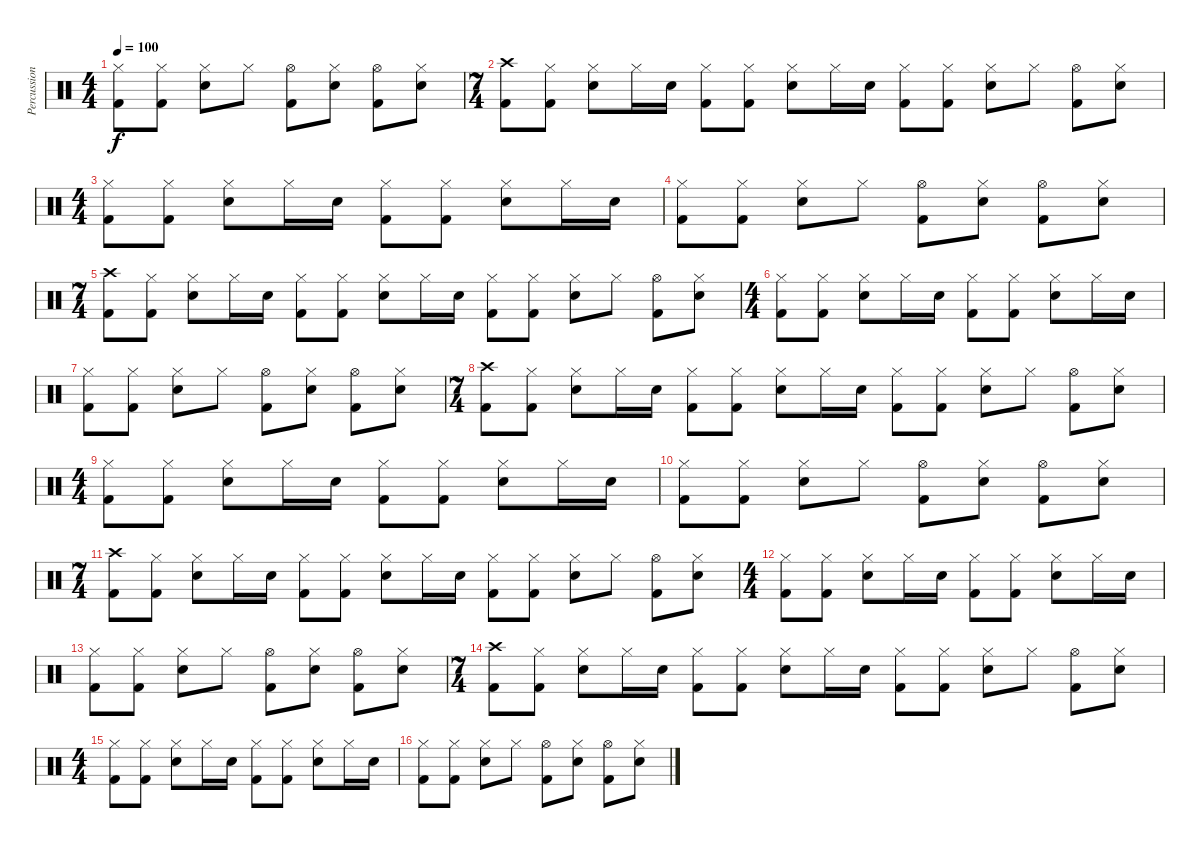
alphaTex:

\track ("Percussion" "Percussion") {instrument percussion}
\staff {score}
\articulation defaults
\ts (4 4)
\tempo 100
\clef neutral
\ks c
("Hi-Hat (closed)" "Kick (hit) 2").8{dy f} ("Hi-Hat (closed)" "Kick (hit) 2").8 ("Hi-Hat (closed)" "Electric Snare (hit)").8 "Hi-Hat (closed)".8 ("Hi-Hat (open)" "Kick (hit) 2").8 ("Hi-Hat (closed)" "Electric Snare (hit)").8 ("Hi-Hat (open)" "Kick (hit) 2").8 ("Hi-Hat (closed)" "Electric Snare (hit)").8 |
\ts (7 4)
("Crash high (hit)" "Kick (hit) 2").8 ("Hi-Hat (closed)" "Kick (hit) 2").8 ("Hi-Hat (closed)" "Electric Snare (hit)").8 "Hi-Hat (closed)".16 "Electric Snare (hit)".16 ("Hi-Hat (closed)" "Kick (hit) 2").8 ("Hi-Hat (closed)" "Kick (hit) 2").8 ("Hi-Hat (closed)" "Electric Snare (hit)").8 "Hi-Hat (closed)".16 "Electric Snare (hit)".16 ("Hi-Hat (closed)" "Kick (hit) 2").8 ("Hi-Hat (closed)" "Kick (hit) 2").8 ("Hi-Hat (closed)" "Electric Snare (hit)").8 "Hi-Hat (closed)".8 ("Hi-Hat (open)" "Kick (hit) 2").8 ("Hi-Hat (closed)" "Electric Snare (hit)").8 |
\ts (4 4)
("Hi-Hat (closed)" "Kick (hit) 2").8 ("Hi-Hat (closed)" "Kick (hit) 2").8 ("Hi-Hat (closed)" "Electric Snare (hit)").8 "Hi-Hat (closed)".16 "Electric Snare (hit)".16 ("Hi-Hat (closed)" "Kick (hit) 2").8 ("Hi-Hat (closed)" "Kick (hit) 2").8 ("Hi-Hat (closed)" "Electric Snare (hit)").8 "Hi-Hat (closed)".16 "Electric Snare (hit)".16 |
("Hi-Hat (closed)" "Kick (hit) 2").8 ("Hi-Hat (closed)" "Kick (hit) 2").8 ("Hi-Hat (closed)" "Electric Snare (hit)").8 "Hi-Hat (closed)".8 ("Hi-Hat (open)" "Kick (hit) 2").8 ("Hi-Hat (closed)" "Electric Snare (hit)").8 ("Hi-Hat (open)" "Kick (hit) 2").8 ("Hi-Hat (closed)" "Electric Snare (hit)").8 |
\ts (7 4)
("Crash high (hit)" "Kick (hit) 2").8 ("Hi-Hat (closed)" "Kick (hit) 2").8 ("Hi-Hat (closed)" "Electric Snare (hit)").8 "Hi-Hat (closed)".16 "Electric Snare (hit)".16 ("Hi-Hat (closed)" "Kick (hit) 2").8 ("Hi-Hat (closed)" "Kick (hit) 2").8 ("Hi-Hat (closed)" "Electric Snare (hit)").8 "Hi-Hat (closed)".16 "Electric Snare (hit)".16 ("Hi-Hat (closed)" "Kick (hit) 2").8 ("Hi-Hat (closed)" "Kick (hit) 2").8 ("Hi-Hat (closed)" "Electric Snare (hit)").8 "Hi-Hat (closed)".8 ("Hi-Hat (open)" "Kick (hit) 2").8 ("Hi-Hat (closed)" "Electric Snare (hit)").8 |
\ts (4 4)
("Hi-Hat (closed)" "Kick (hit) 2").8 ("Hi-Hat (closed)" "Kick (hit) 2").8 ("Hi-Hat (closed)" "Electric Snare (hit)").8 "Hi-Hat (closed)".16 "Electric Snare (hit)".16 ("Hi-Hat (closed)" "Kick (hit) 2").8 ("Hi-Hat (closed)" "Kick (hit) 2").8 ("Hi-Hat (closed)" "Electric Snare (hit)").8 "Hi-Hat (closed)".16 "Electric Snare (hit)".16 |
("Hi-Hat (closed)" "Kick (hit) 2").8 ("Hi-Hat (closed)" "Kick (hit) 2").8 ("Hi-Hat (closed)" "Electric Snare (hit)").8 "Hi-Hat (closed)".8 ("Hi-Hat (open)" "Kick (hit) 2").8 ("Hi-Hat (closed)" "Electric Snare (hit)").8 ("Hi-Hat (open)" "Kick (hit) 2").8 ("Hi-Hat (closed)" "Electric Snare (hit)").8 |
\ts (7 4)
("Crash high (hit)" "Kick (hit) 2").8 ("Hi-Hat (closed)" "Kick (hit) 2").8 ("Hi-Hat (closed)" "Electric Snare (hit)").8 "Hi-Hat (closed)".16 "Electric Snare (hit)".16 ("Hi-Hat (closed)" "Kick (hit) 2").8 ("Hi-Hat (closed)" "Kick (hit) 2").8 ("Hi-Hat (closed)" "Electric Snare (hit)").8 "Hi-Hat (closed)".16 "Electric Snare (hit)".16 ("Hi-Hat (closed)" "Kick (hit) 2").8 ("Hi-Hat (closed)" "Kick (hit) 2").8 ("Hi-Hat (closed)" "Electric Snare (hit)").8 "Hi-Hat (closed)".8 ("Hi-Hat (open)" "Kick (hit) 2").8 ("Hi-Hat (closed)" "Electric Snare (hit)").8 |
\ts (4 4)
("Hi-Hat (closed)" "Kick (hit) 2").8 ("Hi-Hat (closed)" "Kick (hit) 2").8 ("Hi-Hat (closed)" "Electric Snare (hit)").8 "Hi-Hat (closed)".16 "Electric Snare (hit)".16 ("Hi-Hat (closed)" "Kick (hit) 2").8 ("Hi-Hat (closed)" "Kick (hit) 2").8 ("Hi-Hat (closed)" "Electric Snare (hit)").8 "Hi-Hat (closed)".16 "Electric Snare (hit)".16 |
("Hi-Hat (closed)" "Kick (hit) 2").8 ("Hi-Hat (closed)" "Kick (hit) 2").8 ("Hi-Hat (closed)" "Electric Snare (hit)").8 "Hi-Hat (closed)".8 ("Hi-Hat (open)" "Kick (hit) 2").8 ("Hi-Hat (closed)" "Electric Snare (hit)").8 ("Hi-Hat (open)" "Kick (hit) 2").8 ("Hi-Hat (closed)" "Electric Snare (hit)").8 |
\ts (7 4)
("Crash high (hit)" "Kick (hit) 2").8 ("Hi-Hat (closed)" "Kick (hit) 2").8 ("Hi-Hat (closed)" "Electric Snare (hit)").8 "Hi-Hat (closed)".16 "Electric Snare (hit)".16 ("Hi-Hat (closed)" "Kick (hit) 2").8 ("Hi-Hat (closed)" "Kick (hit) 2").8 ("Hi-Hat (closed)" "Electric Snare (hit)").8 "Hi-Hat (closed)".16 "Electric Snare (hit)".16 ("Hi-Hat (closed)" "Kick (hit) 2").8 ("Hi-Hat (closed)" "Kick (hit) 2").8 ("Hi-Hat (closed)" "Electric Snare (hit)").8 "Hi-Hat (closed)".8 ("Hi-Hat (open)" "Kick (hit) 2").8 ("Hi-Hat (closed)" "Electric Snare (hit)").8 |
\ts (4 4)
("Hi-Hat (closed)" "Kick (hit) 2").8 ("Hi-Hat (closed)" "Kick (hit) 2").8 ("Hi-Hat (closed)" "Electric Snare (hit)").8 "Hi-Hat (closed)".16 "Electric Snare (hit)".16 ("Hi-Hat (closed)" "Kick (hit) 2").8 ("Hi-Hat (closed)" "Kick (hit) 2").8 ("Hi-Hat (closed)" "Electric Snare (hit)").8 "Hi-Hat (closed)".16 "Electric Snare (hit)".16 |
("Hi-Hat (closed)" "Kick (hit) 2").8 ("Hi-Hat (closed)" "Kick (hit) 2").8 ("Hi-Hat (closed)" "Electric Snare (hit)").8 "Hi-Hat (closed)".8 ("Hi-Hat (open)" "Kick (hit) 2").8 ("Hi-Hat (closed)" "Electric Snare (hit)").8 ("Hi-Hat (open)" "Kick (hit) 2").8 ("Hi-Hat (closed)" "Electric Snare (hit)").8 |
\ts (7 4)
("Crash high (hit)" "Kick (hit) 2").8 ("Hi-Hat (closed)" "Kick (hit) 2").8 ("Hi-Hat (closed)" "Electric Snare (hit)").8 "Hi-Hat (closed)".16 "Electric Snare (hit)".16 ("Hi-Hat (closed)" "Kick (hit) 2").8 ("Hi-Hat (closed)" "Kick (hit) 2").8 ("Hi-Hat (closed)" "Electric Snare (hit)").8 "Hi-Hat (closed)".16 "Electric Snare (hit)".16 ("Hi-Hat (closed)" "Kick (hit) 2").8 ("Hi-Hat (closed)" "Kick (hit) 2").8 ("Hi-Hat (closed)" "Electric Snare (hit)").8 "Hi-Hat (closed)".8 ("Hi-Hat (open)" "Kick (hit) 2").8 ("Hi-Hat (closed)" "Electric Snare (hit)").8 |
\ts (4 4)
("Hi-Hat (closed)" "Kick (hit) 2").8 ("Hi-Hat (closed)" "Kick (hit) 2").8 ("Hi-Hat (closed)" "Electric Snare (hit)").8 "Hi-Hat (closed)".16 "Electric Snare (hit)".16 ("Hi-Hat (closed)" "Kick (hit) 2").8 ("Hi-Hat (closed)" "Kick (hit) 2").8 ("Hi-Hat (closed)" "Electric Snare (hit)").8 "Hi-Hat (closed)".16 "Electric Snare (hit)".16 |
("Hi-Hat (closed)" "Kick (hit) 2").8 ("Hi-Hat (closed)" "Kick (hit) 2").8 ("Hi-Hat (closed)" "Electric Snare (hit)").8 "Hi-Hat (closed)".8 ("Hi-Hat (open)" "Kick (hit) 2").8 ("Hi-Hat (closed)" "Electric Snare (hit)").8 ("Hi-Hat (open)" "Kick (hit) 2").8 ("Hi-Hat (closed)" "Electric Snare (hit)").8
